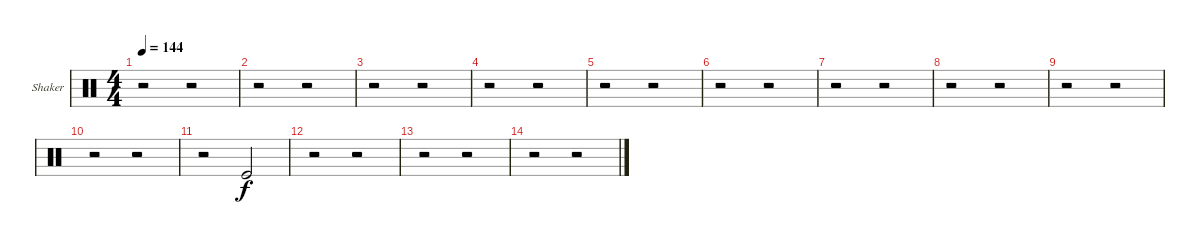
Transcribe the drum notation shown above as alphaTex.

\bracketExtendMode groupsimilarinstruments
\firstSystemTrackNameOrientation horizontal
\otherSystemsTrackNameOrientation horizontal
\track ("Shaker" "Shaker") {instrument percussion}
\staff {score}
\articulation defaults
\ts (4 4)
\tempo 144
\clef neutral
\ks c
r.2{dy f} r.2 |
r.2 r.2 |
r.2 r.2 |
r.2 r.2 |
r.2 r.2 |
r.2 r.2 |
r.2 r.2 |
r.2 r.2 |
r.2 r.2 |
r.2 r.2 |
r.2 "Kick (hit)".2 |
r.2 r.2 |
r.2 r.2 |
r.2 r.2
